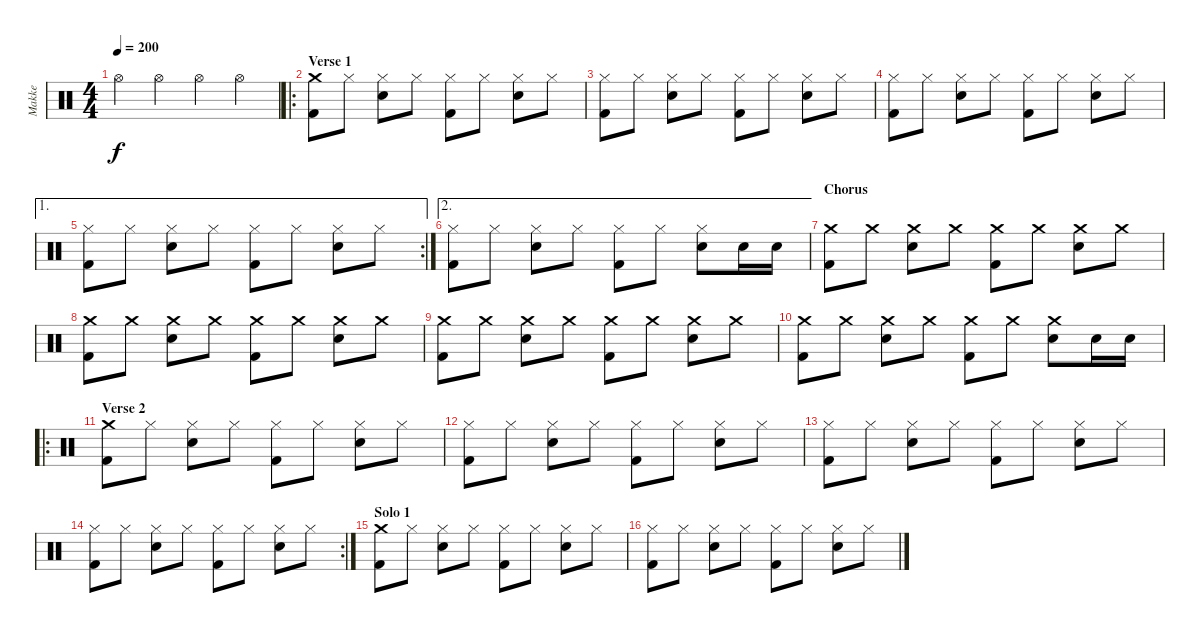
\track ("Makke" "Makke") {instrument percussion}
\staff {score}
\articulation defaults
\ts (4 4)
\tempo 200
\clef neutral
\ks c "Hi-Hat (open)".4{dy f} "Hi-Hat (open)".4 "Hi-Hat (open)".4 "Hi-Hat (open)".4
|
\ro
\section ("" "Verse 1")
("Crash medium (hit)" "Kick (hit) 2").8 "Hi-Hat (closed)".8 ("Hi-Hat (closed)" "Electric Snare (hit)").8 "Hi-Hat (closed)".8 ("Hi-Hat (closed)" "Kick (hit) 2").8 "Hi-Hat (closed)".8 ("Hi-Hat (closed)" "Electric Snare (hit)").8 "Hi-Hat (closed)".8 |
("Hi-Hat (closed)" "Kick (hit) 2").8 "Hi-Hat (closed)".8 ("Hi-Hat (closed)" "Electric Snare (hit)").8 "Hi-Hat (closed)".8 ("Hi-Hat (closed)" "Kick (hit) 2").8 "Hi-Hat (closed)".8 ("Hi-Hat (closed)" "Electric Snare (hit)").8 "Hi-Hat (closed)".8 |
("Hi-Hat (closed)" "Kick (hit) 2").8 "Hi-Hat (closed)".8 ("Hi-Hat (closed)" "Electric Snare (hit)").8 "Hi-Hat (closed)".8 ("Hi-Hat (closed)" "Kick (hit) 2").8 "Hi-Hat (closed)".8 ("Hi-Hat (closed)" "Electric Snare (hit)").8 "Hi-Hat (closed)".8 |
\ae 1
\rc 2
("Hi-Hat (closed)" "Kick (hit) 2").8 "Hi-Hat (closed)".8 ("Hi-Hat (closed)" "Electric Snare (hit)").8 "Hi-Hat (closed)".8 ("Hi-Hat (closed)" "Kick (hit) 2").8 "Hi-Hat (closed)".8 ("Hi-Hat (closed)" "Electric Snare (hit)").8 "Hi-Hat (closed)".8 |
\ae 2
("Hi-Hat (closed)" "Kick (hit) 2").8 "Hi-Hat (closed)".8 ("Hi-Hat (closed)" "Electric Snare (hit)").8 "Hi-Hat (closed)".8 ("Hi-Hat (closed)" "Kick (hit) 2").8 "Hi-Hat (closed)".8 ("Hi-Hat (closed)" "Electric Snare (hit)").8 "Electric Snare (hit)".16 "Electric Snare (hit)".16 |
\section ("" "Chorus")
("Crash medium (hit)" "Kick (hit) 2").8 "Crash medium (hit)".8 ("Crash medium (hit)" "Electric Snare (hit)").8 "Crash medium (hit)".8 ("Crash medium (hit)" "Kick (hit) 2").8 "Crash medium (hit)".8 ("Crash medium (hit)" "Electric Snare (hit)").8 "Crash medium (hit)".8 |
("Crash medium (hit)" "Kick (hit) 2").8 "Crash medium (hit)".8 ("Crash medium (hit)" "Electric Snare (hit)").8 "Crash medium (hit)".8 ("Crash medium (hit)" "Kick (hit) 2").8 "Crash medium (hit)".8 ("Crash medium (hit)" "Electric Snare (hit)").8 "Crash medium (hit)".8 |
("Crash medium (hit)" "Kick (hit) 2").8 "Crash medium (hit)".8 ("Crash medium (hit)" "Electric Snare (hit)").8 "Crash medium (hit)".8 ("Crash medium (hit)" "Kick (hit) 2").8 "Crash medium (hit)".8 ("Crash medium (hit)" "Electric Snare (hit)").8 "Crash medium (hit)".8 |
("Crash medium (hit)" "Kick (hit) 2").8 "Crash medium (hit)".8 ("Crash medium (hit)" "Electric Snare (hit)").8 "Crash medium (hit)".8 ("Crash medium (hit)" "Kick (hit) 2").8 "Crash medium (hit)".8 ("Crash medium (hit)" "Electric Snare (hit)").8 "Electric Snare (hit)".16 "Electric Snare (hit)".16 |
\ro
\section ("" "Verse 2")
("Crash medium (hit)" "Kick (hit) 2").8 "Hi-Hat (closed)".8 ("Hi-Hat (closed)" "Electric Snare (hit)").8 "Hi-Hat (closed)".8 ("Hi-Hat (closed)" "Kick (hit) 2").8 "Hi-Hat (closed)".8 ("Hi-Hat (closed)" "Electric Snare (hit)").8 "Hi-Hat (closed)".8 |
("Hi-Hat (closed)" "Kick (hit) 2").8 "Hi-Hat (closed)".8 ("Hi-Hat (closed)" "Electric Snare (hit)").8 "Hi-Hat (closed)".8 ("Hi-Hat (closed)" "Kick (hit) 2").8 "Hi-Hat (closed)".8 ("Hi-Hat (closed)" "Electric Snare (hit)").8 "Hi-Hat (closed)".8 |
("Hi-Hat (closed)" "Kick (hit) 2").8 "Hi-Hat (closed)".8 ("Hi-Hat (closed)" "Electric Snare (hit)").8 "Hi-Hat (closed)".8 ("Hi-Hat (closed)" "Kick (hit) 2").8 "Hi-Hat (closed)".8 ("Hi-Hat (closed)" "Electric Snare (hit)").8 "Hi-Hat (closed)".8 |
\rc 2
("Hi-Hat (closed)" "Kick (hit) 2").8 "Hi-Hat (closed)".8 ("Hi-Hat (closed)" "Electric Snare (hit)").8 "Hi-Hat (closed)".8 ("Hi-Hat (closed)" "Kick (hit) 2").8 "Hi-Hat (closed)".8 ("Hi-Hat (closed)" "Electric Snare (hit)").8 "Hi-Hat (closed)".8 |
\section ("" "Solo 1")
("Crash medium (hit)" "Kick (hit) 2").8 "Hi-Hat (closed)".8 ("Hi-Hat (closed)" "Electric Snare (hit)").8 "Hi-Hat (closed)".8 ("Hi-Hat (closed)" "Kick (hit) 2").8 "Hi-Hat (closed)".8 ("Hi-Hat (closed)" "Electric Snare (hit)").8 "Hi-Hat (closed)".8 |
("Hi-Hat (closed)" "Kick (hit) 2").8 "Hi-Hat (closed)".8 ("Hi-Hat (closed)" "Electric Snare (hit)").8 "Hi-Hat (closed)".8 ("Hi-Hat (closed)" "Kick (hit) 2").8 "Hi-Hat (closed)".8 ("Hi-Hat (closed)" "Electric Snare (hit)").8 "Hi-Hat (closed)".8
